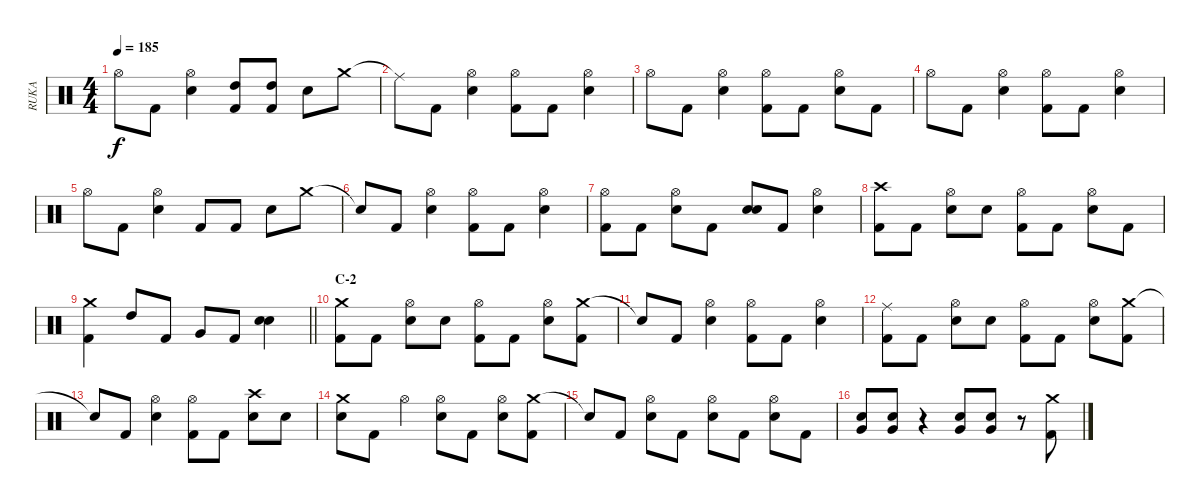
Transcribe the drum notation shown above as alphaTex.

\track ("RUKA" "RUKA") {instrument percussion}
\staff {score}
\articulation defaults
\ts (4 4)
\tempo 185
\clef neutral
\ks c "Hi-Hat (open)".8{dy f} "Kick (hit) 2".8
("Hi-Hat (open)" "Electric Snare (hit)").4 ("High Tom (hit)" "Kick (hit) 2").8 ("High Tom (hit)" "Kick (hit) 2").8 "Electric Snare (hit)".8 "Crash medium (hit)".8 |
"Ride (middle)"{t}.8 "Kick (hit) 2".8 ("Hi-Hat (open)" "Electric Snare (hit)").4 ("Hi-Hat (open)" "Kick (hit) 2").8 "Kick (hit) 2".8 ("Hi-Hat (open)" "Electric Snare (hit)").4 |
"Hi-Hat (open)".8 "Kick (hit) 2".8 ("Hi-Hat (open)" "Electric Snare (hit)").4 ("Hi-Hat (open)" "Kick (hit) 2").8 "Kick (hit) 2".8 ("Hi-Hat (open)" "Electric Snare (hit)").8 "Kick (hit) 2".8 |
"Hi-Hat (open)".8 "Kick (hit) 2".8 ("Hi-Hat (open)" "Electric Snare (hit)").4 ("Hi-Hat (open)" "Kick (hit) 2").8 "Kick (hit) 2".8 ("Hi-Hat (open)" "Electric Snare (hit)").4 |
"Hi-Hat (open)".8 "Kick (hit) 2".8 ("Hi-Hat (open)" "Electric Snare (hit)").4 "Kick (hit) 2".8 "Kick (hit) 2".8 "Electric Snare (hit)".8 "Crash medium (hit)".8 |
"Snare (hit)"{t}.8 "Kick (hit) 2".8 ("Hi-Hat (open)" "Electric Snare (hit)").4 ("Hi-Hat (open)" "Kick (hit) 2").8 "Kick (hit) 2".8 ("Hi-Hat (open)" "Electric Snare (hit)").4 |
("Hi-Hat (open)" "Kick (hit) 2").8 "Kick (hit) 2".8 ("Hi-Hat (open)" "Electric Snare (hit)").8 "Kick (hit) 2".8 ("Electric Snare (hit)" "Electric Snare (hit)").8 "Kick (hit) 2".8 ("Hi-Hat (open)" "Electric Snare (hit)").4 |
("Crash high (hit)" "Kick (hit) 2").8 "Kick (hit) 2".8 ("Hi-Hat (open)" "Electric Snare (hit)").8 "Electric Snare (hit)".8 ("Hi-Hat (open)" "Kick (hit) 2").8 "Kick (hit) 2".8 ("Hi-Hat (open)" "Electric Snare (hit)").8 "Kick (hit) 2".8 |
\barLineRight lightlight
("Crash medium (hit)" "Kick (hit) 2").4 "High Tom (hit)".8 "Kick (hit) 2".8 "Very Low Tom (hit)".8 "Kick (hit) 2".8 ("Electric Snare (hit)" "Electric Snare (hit)").4 |
\section ("" "C-2")
("Crash medium (hit)" "Kick (hit) 2").8 "Kick (hit) 2".8 ("Hi-Hat (open)" "Electric Snare (hit)").8 "Electric Snare (hit)".8 ("Hi-Hat (open)" "Kick (hit) 2").8 "Kick (hit) 2".8 ("Hi-Hat (open)" "Electric Snare (hit)").8 ("Crash medium (hit)" "Kick (hit) 2").8 |
"Snare (hit)"{t}.8 "Kick (hit) 2".8 ("Hi-Hat (open)" "Electric Snare (hit)").4 ("Hi-Hat (open)" "Kick (hit) 2").8 "Kick (hit) 2".8 ("Hi-Hat (open)" "Electric Snare (hit)").4 |
("Ride (middle)" "Kick (hit) 2").8 "Kick (hit) 2".8 ("Hi-Hat (open)" "Electric Snare (hit)").8 "Electric Snare (hit)".8 ("Hi-Hat (open)" "Kick (hit) 2").8 "Kick (hit) 2".8 ("Hi-Hat (open)" "Electric Snare (hit)").8 ("Crash medium (hit)" "Kick (hit) 2").8 |
"Snare (hit)"{t}.8 "Kick (hit) 2".8 ("Hi-Hat (open)" "Electric Snare (hit)").4 ("Hi-Hat (open)" "Kick (hit) 2").8 "Kick (hit) 2".8 ("Crash high (hit)" "Electric Snare (hit)").8 "Electric Snare (hit)".8 |
("Crash medium (hit)" "Electric Snare (hit)").8 "Kick (hit) 2".8 "Hi-Hat (open)".4 ("Hi-Hat (open)" "Electric Snare (hit)").8 "Kick (hit) 2".8 ("Hi-Hat (open)" "Electric Snare (hit)").8 ("Crash medium (hit)" "Kick (hit) 2").8 |
"Snare (hit)"{t}.8 "Kick (hit) 2".8 ("Hi-Hat (open)" "Electric Snare (hit)").8 "Kick (hit) 2".8 ("Hi-Hat (open)" "Electric Snare (hit)").8 "Kick (hit) 2".8 ("Hi-Hat (open)" "Electric Snare (hit)").8 "Kick (hit) 2".8 |
("Very Low Tom (hit)" "Electric Snare (hit)").8 ("Very Low Tom (hit)" "Electric Snare (hit)").8 r.4 ("Very Low Tom (hit)" "Electric Snare (hit)").8 ("Very Low Tom (hit)" "Electric Snare (hit)").8 r.8 ("Crash medium (hit)" "Kick (hit) 2").8
